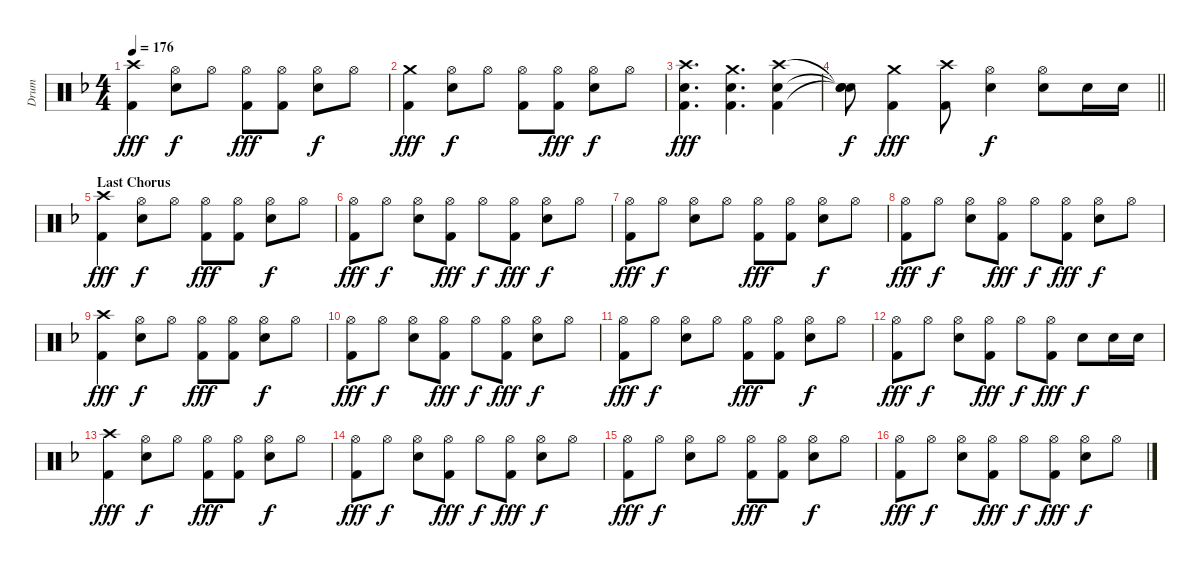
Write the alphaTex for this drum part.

\track ("Drum" "Drum") {instrument percussion}
\staff {score}
\articulation defaults
\ts (4 4)
\tempo 176
\clef neutral
\ks f
("Crash high (hit)" "Kick (hit) 2").4{dy fff} ("Hi-Hat (open)" "Snare (hit) 2").8{dy f} "Hi-Hat (open)".8 ("Hi-Hat (open)" "Kick (hit) 2").8{dy fff} ("Hi-Hat (open)" "Kick (hit) 2").8 ("Hi-Hat (open)" "Snare (hit) 2").8{dy f} "Hi-Hat (open)".8 |
("Crash medium (hit)" "Kick (hit) 2").4{dy fff} ("Hi-Hat (open)" "Snare (hit) 2").8{dy f} "Hi-Hat (open)".8 ("Hi-Hat (open)" "Kick (hit) 2").8 ("Hi-Hat (open)" "Kick (hit) 2").8{dy fff} ("Hi-Hat (open)" "Snare (hit) 2").8{dy f} "Hi-Hat (open)".8 |
("Crash high (hit)" "Snare (hit) 2" "Kick (hit) 2").4{d dy fff} ("Crash medium (hit)" "Snare (hit) 2" "Kick (hit) 2").4{d} ("Crash high (hit)" "Snare (hit) 2" "Kick (hit) 2").4 |
\barLineRight lightlight
("Snare (hit)"{t} "Snare (hit)"{t} "Snare (hit)"{t}).8{dy f} ("Crash medium (hit)" "Kick (hit) 2").4{dy fff} ("Crash high (hit)" "Kick (hit) 2").8 ("Hi-Hat (open)" "Snare (hit) 2").4{dy f} ("Hi-Hat (open)" "Snare (hit) 2").8 "Snare (hit) 2".16 "Snare (hit) 2".16 |
\section ("" "Last Chorus")
("Crash high (hit)" "Kick (hit) 2").4{dy fff} ("Hi-Hat (open)" "Snare (hit) 2").8{dy f} "Hi-Hat (open)".8 ("Hi-Hat (open)" "Kick (hit) 2").8{dy fff} ("Hi-Hat (open)" "Kick (hit) 2").8 ("Hi-Hat (open)" "Snare (hit) 2").8{dy f} "Hi-Hat (open)".8 |
("Hi-Hat (open)" "Kick (hit) 2").8{dy fff} "Hi-Hat (open)".8{dy f} ("Hi-Hat (open)" "Snare (hit) 2").8 ("Hi-Hat (open)" "Kick (hit) 2").8{dy fff} "Hi-Hat (open)".8{dy f} ("Hi-Hat (open)" "Kick (hit) 2").8{dy fff} ("Hi-Hat (open)" "Snare (hit) 2").8{dy f} "Hi-Hat (open)".8 |
("Hi-Hat (open)" "Kick (hit) 2").8{dy fff} "Hi-Hat (open)".8{dy f} ("Hi-Hat (open)" "Snare (hit) 2").8 "Hi-Hat (open)".8 ("Hi-Hat (open)" "Kick (hit) 2").8{dy fff} ("Hi-Hat (open)" "Kick (hit) 2").8 ("Hi-Hat (open)" "Snare (hit) 2").8{dy f} "Hi-Hat (open)".8 |
("Hi-Hat (open)" "Kick (hit) 2").8{dy fff} "Hi-Hat (open)".8{dy f} ("Hi-Hat (open)" "Snare (hit) 2").8 ("Hi-Hat (open)" "Kick (hit) 2").8{dy fff} "Hi-Hat (open)".8{dy f} ("Hi-Hat (open)" "Kick (hit) 2").8{dy fff} ("Hi-Hat (open)" "Snare (hit) 2").8{dy f} "Hi-Hat (open)".8 |
("Crash high (hit)" "Kick (hit) 2").4{dy fff} ("Hi-Hat (open)" "Snare (hit) 2").8{dy f} "Hi-Hat (open)".8 ("Hi-Hat (open)" "Kick (hit) 2").8{dy fff} ("Hi-Hat (open)" "Kick (hit) 2").8 ("Hi-Hat (open)" "Snare (hit) 2").8{dy f} "Hi-Hat (open)".8 |
("Hi-Hat (open)" "Kick (hit) 2").8{dy fff} "Hi-Hat (open)".8{dy f} ("Hi-Hat (open)" "Snare (hit) 2").8 ("Hi-Hat (open)" "Kick (hit) 2").8{dy fff} "Hi-Hat (open)".8{dy f} ("Hi-Hat (open)" "Kick (hit) 2").8{dy fff} ("Hi-Hat (open)" "Snare (hit) 2").8{dy f} "Hi-Hat (open)".8 |
("Hi-Hat (open)" "Kick (hit) 2").8{dy fff} "Hi-Hat (open)".8{dy f} ("Hi-Hat (open)" "Snare (hit) 2").8 "Hi-Hat (open)".8 ("Hi-Hat (open)" "Kick (hit) 2").8{dy fff} ("Hi-Hat (open)" "Kick (hit) 2").8 ("Hi-Hat (open)" "Snare (hit) 2").8{dy f} "Hi-Hat (open)".8 |
("Hi-Hat (open)" "Kick (hit) 2").8{dy fff} "Hi-Hat (open)".8{dy f} ("Hi-Hat (open)" "Snare (hit) 2").8 ("Hi-Hat (open)" "Kick (hit) 2").8{dy fff} "Hi-Hat (open)".8{dy f} ("Hi-Hat (open)" "Kick (hit) 2").8{dy fff} "Snare (hit) 2".8{dy f} "Snare (hit) 2".16 "Snare (hit) 2".16 |
("Crash high (hit)" "Kick (hit) 2").4{dy fff} ("Hi-Hat (open)" "Snare (hit) 2").8{dy f} "Hi-Hat (open)".8 ("Hi-Hat (open)" "Kick (hit) 2").8{dy fff} ("Hi-Hat (open)" "Kick (hit) 2").8 ("Hi-Hat (open)" "Snare (hit) 2").8{dy f} "Hi-Hat (open)".8 |
("Hi-Hat (open)" "Kick (hit) 2").8{dy fff} "Hi-Hat (open)".8{dy f} ("Hi-Hat (open)" "Snare (hit) 2").8 ("Hi-Hat (open)" "Kick (hit) 2").8{dy fff} "Hi-Hat (open)".8{dy f} ("Hi-Hat (open)" "Kick (hit) 2").8{dy fff} ("Hi-Hat (open)" "Snare (hit) 2").8{dy f} "Hi-Hat (open)".8 |
("Hi-Hat (open)" "Kick (hit) 2").8{dy fff} "Hi-Hat (open)".8{dy f} ("Hi-Hat (open)" "Snare (hit) 2").8 "Hi-Hat (open)".8 ("Hi-Hat (open)" "Kick (hit) 2").8{dy fff} ("Hi-Hat (open)" "Kick (hit) 2").8 ("Hi-Hat (open)" "Snare (hit) 2").8{dy f} "Hi-Hat (open)".8 |
("Hi-Hat (open)" "Kick (hit) 2").8{dy fff} "Hi-Hat (open)".8{dy f} ("Hi-Hat (open)" "Snare (hit) 2").8 ("Hi-Hat (open)" "Kick (hit) 2").8{dy fff} "Hi-Hat (open)".8{dy f} ("Hi-Hat (open)" "Kick (hit) 2").8{dy fff} ("Hi-Hat (open)" "Snare (hit) 2").8{dy f} "Hi-Hat (open)".8
